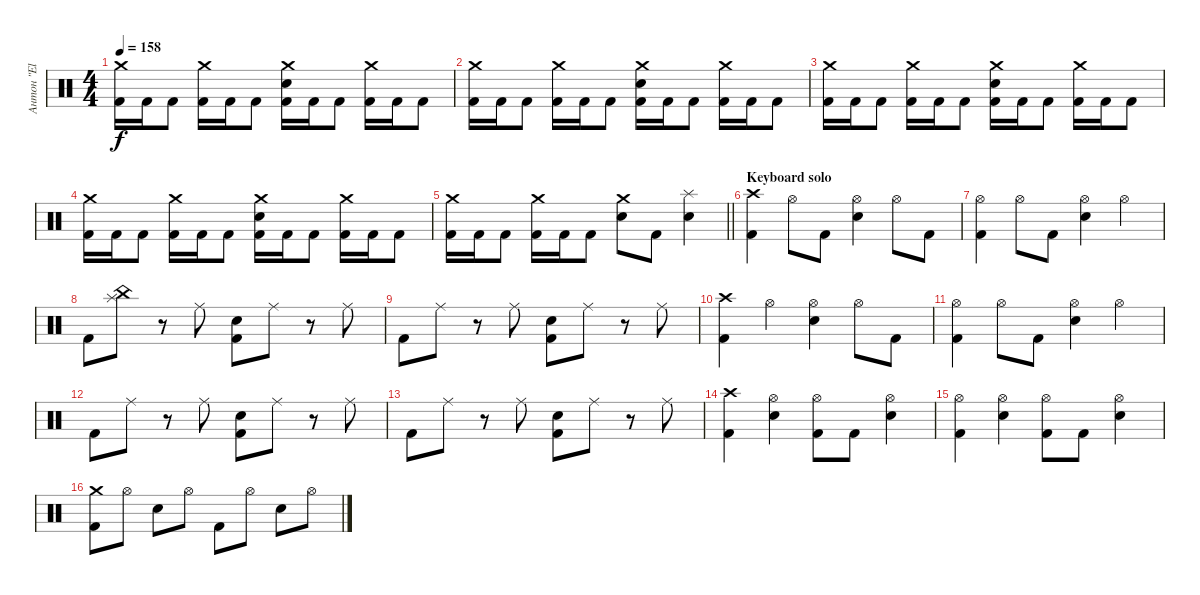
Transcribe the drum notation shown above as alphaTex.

\track ("Антон \"El Bastardo\" Смольянин" "Антон \"El ") {instrument percussion}
\staff {score}
\articulation defaults
\ts (4 4)
\tempo 158
\clef neutral
\ks c
("Crash medium (hit)" "Kick (hit) 2").16{dy f} "Kick (hit) 2".16 "Kick (hit) 2".8 ("Crash medium (hit)" "Kick (hit) 2").16 "Kick (hit) 2".16 "Kick (hit) 2".8 ("Crash medium (hit)" "Electric Snare (hit)" "Kick (hit) 2").16 "Kick (hit) 2".16 "Kick (hit) 2".8 ("Crash medium (hit)" "Kick (hit) 2").16 "Kick (hit) 2".16 "Kick (hit) 2".8 |
("Crash medium (hit)" "Kick (hit) 2").16 "Kick (hit) 2".16 "Kick (hit) 2".8 ("Crash medium (hit)" "Kick (hit) 2").16 "Kick (hit) 2".16 "Kick (hit) 2".8 ("Crash medium (hit)" "Electric Snare (hit)" "Kick (hit) 2").16 "Kick (hit) 2".16 "Kick (hit) 2".8 ("Crash medium (hit)" "Kick (hit) 2").16 "Kick (hit) 2".16 "Kick (hit) 2".8 |
("Crash medium (hit)" "Kick (hit) 2").16 "Kick (hit) 2".16 "Kick (hit) 2".8 ("Crash medium (hit)" "Kick (hit) 2").16 "Kick (hit) 2".16 "Kick (hit) 2".8 ("Crash medium (hit)" "Electric Snare (hit)" "Kick (hit) 2").16 "Kick (hit) 2".16 "Kick (hit) 2".8 ("Crash medium (hit)" "Kick (hit) 2").16 "Kick (hit) 2".16 "Kick (hit) 2".8 |
("Crash medium (hit)" "Kick (hit) 2").16 "Kick (hit) 2".16 "Kick (hit) 2".8 ("Crash medium (hit)" "Kick (hit) 2").16 "Kick (hit) 2".16 "Kick (hit) 2".8 ("Crash medium (hit)" "Electric Snare (hit)" "Kick (hit) 2").16 "Kick (hit) 2".16 "Kick (hit) 2".8 ("Crash medium (hit)" "Kick (hit) 2").16 "Kick (hit) 2".16 "Kick (hit) 2".8 |
\barLineRight lightlight
("Crash medium (hit)" "Kick (hit) 2").16 "Kick (hit) 2".16 "Kick (hit) 2".8 ("Crash medium (hit)" "Kick (hit) 2").16 "Kick (hit) 2".16 "Kick (hit) 2".8 ("Crash medium (hit)" "Electric Snare (hit)").8 "Kick (hit) 2".8 ("Splash (hit)" "Electric Snare (hit)").4 |
\section ("" "Keyboard solo")
("Crash high (hit)" "Kick (hit) 2").4 "Hi-Hat (open)".8 "Kick (hit) 2".8 ("Hi-Hat (open)" "Electric Snare (hit)").4 "Hi-Hat (open)".8 "Kick (hit) 2".8 |
("Hi-Hat (open)" "Kick (hit) 2").4 "Hi-Hat (open)".8 "Kick (hit) 2".8 ("Hi-Hat (open)" "Electric Snare (hit)").4 "Hi-Hat (open)".4 |
"Kick (hit) 2".8 ("China (hit)" "Splash (hit)").8 r.8 "Ride (middle)".8 ("Electric Snare (hit)" "Kick (hit) 2").8 "Ride (middle)".8 r.8 "Ride (middle)".8 |
"Kick (hit) 2".8 "Ride (middle)".8 r.8 "Ride (middle)".8 ("Electric Snare (hit)" "Kick (hit) 2").8 "Ride (middle)".8 r.8 "Ride (middle)".8 |
("Crash high (hit)" "Kick (hit) 2").4 "Hi-Hat (open)".4 ("Hi-Hat (open)" "Electric Snare (hit)").4 "Hi-Hat (open)".8 "Kick (hit) 2".8 |
("Hi-Hat (open)" "Kick (hit) 2").4 "Hi-Hat (open)".8 "Kick (hit) 2".8 ("Hi-Hat (open)" "Electric Snare (hit)").4 "Hi-Hat (open)".4 |
"Kick (hit) 2".8 "Ride (middle)".8 r.8 "Ride (middle)".8 ("Electric Snare (hit)" "Kick (hit) 2").8 "Ride (middle)".8 r.8 "Ride (middle)".8 |
"Kick (hit) 2".8 "Ride (middle)".8 r.8 "Ride (middle)".8 ("Electric Snare (hit)" "Kick (hit) 2").8 "Ride (middle)".8 r.8 "Ride (middle)".8 |
("Crash high (hit)" "Kick (hit) 2").4 ("Hi-Hat (open)" "Electric Snare (hit)").4 ("Hi-Hat (open)" "Kick (hit) 2").8 "Kick (hit) 2".8 ("Hi-Hat (open)" "Electric Snare (hit)").4 |
("Hi-Hat (open)" "Kick (hit) 2").4 ("Hi-Hat (open)" "Electric Snare (hit)").4 ("Hi-Hat (open)" "Kick (hit) 2").8 "Kick (hit) 2".8 ("Hi-Hat (open)" "Electric Snare (hit)").4 |
("Crash medium (hit)" "Kick (hit) 2").8 "Hi-Hat (open)".8 "Electric Snare (hit)".8 "Hi-Hat (open)".8 "Kick (hit) 2".8 "Hi-Hat (open)".8 "Electric Snare (hit)".8 "Hi-Hat (open)".8
